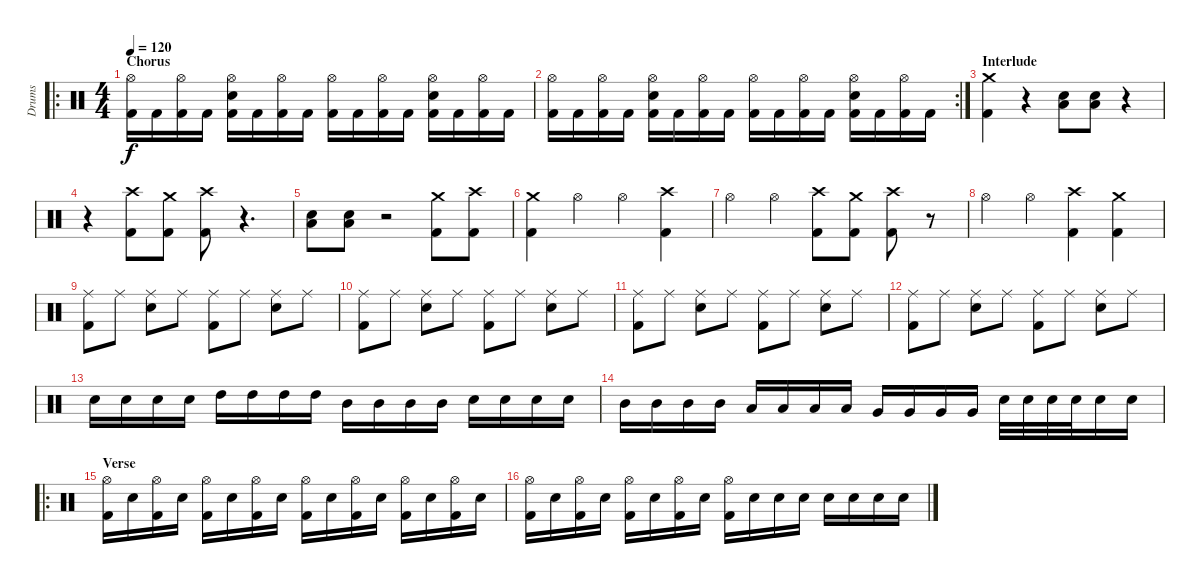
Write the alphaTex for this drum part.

\track ("Drums" "Drums") {instrument percussion}
\staff {score}
\articulation defaults
\ro
\ts (4 4)
\section ("" "Chorus")
\tempo 120
\clef neutral
\ks c
("Hi-Hat (open)" "Kick (hit) 2").16{dy f} "Kick (hit) 2".16 ("Hi-Hat (open)" "Kick (hit) 2").16 "Kick (hit) 2".16 ("Hi-Hat (open)" "Electric Snare (hit)" "Kick (hit) 2").16 "Kick (hit) 2".16 ("Hi-Hat (open)" "Kick (hit) 2").16 "Kick (hit) 2".16 ("Hi-Hat (open)" "Kick (hit) 2").16 "Kick (hit) 2".16 ("Hi-Hat (open)" "Kick (hit) 2").16 "Kick (hit) 2".16 ("Hi-Hat (open)" "Electric Snare (hit)" "Kick (hit) 2").16 "Kick (hit) 2".16 ("Hi-Hat (open)" "Kick (hit) 2").16 "Kick (hit) 2".16 |
\rc 2
("Hi-Hat (open)" "Kick (hit) 2").16 "Kick (hit) 2".16 ("Hi-Hat (open)" "Kick (hit) 2").16 "Kick (hit) 2".16 ("Hi-Hat (open)" "Electric Snare (hit)" "Kick (hit) 2").16 "Kick (hit) 2".16 ("Hi-Hat (open)" "Kick (hit) 2").16 "Kick (hit) 2".16 ("Hi-Hat (open)" "Kick (hit) 2").16 "Kick (hit) 2".16 ("Hi-Hat (open)" "Kick (hit) 2").16 "Kick (hit) 2".16 ("Hi-Hat (open)" "Electric Snare (hit)" "Kick (hit) 2").16 "Kick (hit) 2".16 ("Hi-Hat (open)" "Kick (hit) 2").16 "Kick (hit) 2".16 |
\section ("" "Interlude")
("Crash medium (hit)" "Kick (hit) 2").4 r.4 ("Electric Snare (hit)" "Low Floor Tom (hit)").8 ("Electric Snare (hit)" "Low Floor Tom (hit)").8 r.4 |
r.4 ("Crash high (hit)" "Kick (hit) 2").8 ("Crash medium (hit)" "Kick (hit) 2").8 ("Crash high (hit)" "Kick (hit) 2").8 r.4{d} |
("Low Floor Tom (hit)" "Electric Snare (hit)").8 ("Low Floor Tom (hit)" "Electric Snare (hit)").8 r.2 ("Crash medium (hit)" "Kick (hit) 2").8 ("Crash high (hit)" "Kick (hit) 2").8 |
("Crash medium (hit)" "Kick (hit) 2").4 "Hi-Hat (open)".4 "Hi-Hat (open)".4 ("Crash high (hit)" "Kick (hit) 2").4 |
"Hi-Hat (open)".4 "Hi-Hat (open)".4 ("Crash high (hit)" "Kick (hit) 2").8 ("Crash medium (hit)" "Kick (hit) 2").8 ("Crash high (hit)" "Kick (hit) 2").8 r.8 |
"Hi-Hat (open)".4 "Hi-Hat (open)".4 ("Crash high (hit)" "Kick (hit) 2").4 ("Crash medium (hit)" "Kick (hit) 2").4 |
("Ride (middle)" "Kick (hit) 2").8 "Ride (middle)".8 ("Ride (middle)" "Electric Snare (hit)").8 "Ride (middle)".8 ("Ride (middle)" "Kick (hit) 2").8 "Ride (middle)".8 ("Ride (middle)" "Electric Snare (hit)").8 "Ride (middle)".8 |
("Ride (middle)" "Kick (hit) 2").8 "Ride (middle)".8 ("Ride (middle)" "Electric Snare (hit)").8 "Ride (middle)".8 ("Ride (middle)" "Kick (hit) 2").8 "Ride (middle)".8 ("Ride (middle)" "Electric Snare (hit)").8 "Ride (middle)".8 |
("Ride (middle)" "Kick (hit) 2").8 "Ride (middle)".8 ("Ride (middle)" "Electric Snare (hit)").8 "Ride (middle)".8 ("Ride (middle)" "Kick (hit) 2").8 "Ride (middle)".8 ("Ride (middle)" "Electric Snare (hit)").8 "Ride (middle)".8 |
("Ride (middle)" "Kick (hit) 2").8 "Ride (middle)".8 ("Ride (middle)" "Electric Snare (hit)").8 "Ride (middle)".8 ("Ride (middle)" "Kick (hit) 2").8 "Ride (middle)".8 ("Ride (middle)" "Electric Snare (hit)").8 "Ride (middle)".8 |
"Electric Snare (hit)".16 "Electric Snare (hit)".16 "Electric Snare (hit)".16 "Electric Snare (hit)".16 "High Tom (hit)".16 "High Tom (hit)".16 "High Tom (hit)".16 "High Tom (hit)".16 "Mid Tom (hit)".16 "Mid Tom (hit)".16 "Mid Tom (hit)".16 "Mid Tom (hit)".16 "Electric Snare (hit)".16 "Electric Snare (hit)".16 "Electric Snare (hit)".16 "Electric Snare (hit)".16 |
"Mid Tom (hit)".16 "Mid Tom (hit)".16 "Mid Tom (hit)".16 "Mid Tom (hit)".16 "Low Tom (hit)".16 "Low Tom (hit)".16 "Low Tom (hit)".16 "Low Tom (hit)".16 "Very Low Tom (hit)".16 "Very Low Tom (hit)".16 "Very Low Tom (hit)".16 "Very Low Tom (hit)".16 "Electric Snare (hit)".32 "Electric Snare (hit)".32 "Electric Snare (hit)".32 "Electric Snare (hit)".32 "Electric Snare (hit)".16 "Electric Snare (hit)".16 |
\ro
\section ("" "Verse")
("Hi-Hat (open)" "Kick (hit) 2").16 "Electric Snare (hit)".16 ("Hi-Hat (open)" "Kick (hit) 2").16 "Electric Snare (hit)".16 ("Hi-Hat (open)" "Kick (hit) 2").16 "Electric Snare (hit)".16 ("Hi-Hat (open)" "Kick (hit) 2").16 "Electric Snare (hit)".16 ("Hi-Hat (open)" "Kick (hit) 2").16 "Electric Snare (hit)".16 ("Hi-Hat (open)" "Kick (hit) 2").16 "Electric Snare (hit)".16 ("Hi-Hat (open)" "Kick (hit) 2").16 "Electric Snare (hit)".16 ("Hi-Hat (open)" "Kick (hit) 2").16 "Electric Snare (hit)".16 |
("Hi-Hat (open)" "Kick (hit) 2").16 "Electric Snare (hit)".16 ("Hi-Hat (open)" "Kick (hit) 2").16 "Electric Snare (hit)".16 ("Hi-Hat (open)" "Kick (hit) 2").16 "Electric Snare (hit)".16 ("Hi-Hat (open)" "Kick (hit) 2").16 "Electric Snare (hit)".16 ("Hi-Hat (open)" "Kick (hit) 2").16 "Electric Snare (hit)".16 "Electric Snare (hit)".16 "Electric Snare (hit)".16 "Electric Snare (hit)".16 "Electric Snare (hit)".16 "Electric Snare (hit)".16 "Electric Snare (hit)".16
